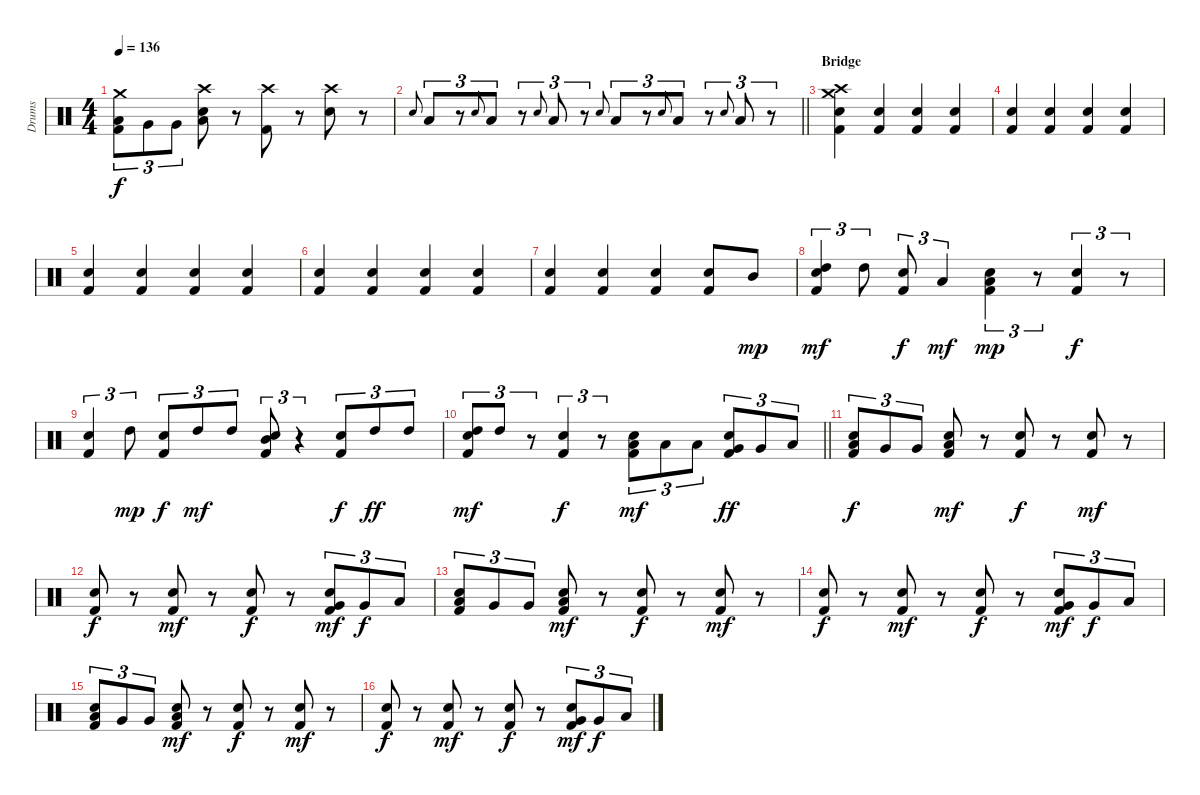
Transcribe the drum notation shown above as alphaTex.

\track ("Drums" "Drums") {instrument percussion}
\staff {score}
\articulation defaults
\ts (4 4)
\tempo 136
\clef neutral
\ks c
("Crash medium (hit)" "Low Floor Tom (hit)" "Kick (hit) 2").8{tu (3 2) dy f} "Very Low Tom (hit)".8{tu (3 2)} "Very Low Tom (hit)".8{tu (3 2)} ("Crash high (hit)" "Electric Snare (hit)" "Low Tom (hit)").8 r.8 ("Crash high (hit)" "Kick (hit) 2").8 r.8 ("Crash high (hit)" "Electric Snare (hit)").8 r.8 |
\barLineRight lightlight "Electric Snare (hit)".8{gr onbeat} "Low Floor Tom (hit)".8{tu (3 2)}
r.8{tu (3 2)} "Electric Snare (hit)".8{gr onbeat} "Low Floor Tom (hit)".8{tu (3 2)} r.8{tu (3 2)} "Electric Snare (hit)".8{gr onbeat} "Low Floor Tom (hit)".8{tu (3 2)} r.8{tu (3 2)} "Electric Snare (hit)".8{gr onbeat} "Low Floor Tom (hit)".8{tu (3 2)} r.8{tu (3 2)} "Electric Snare (hit)".8{gr onbeat} "Low Floor Tom (hit)".8{tu (3 2)} r.8{tu (3 2)} "Electric Snare (hit)".8{gr onbeat} "Low Floor Tom (hit)".8{tu (3 2)} r.8{tu (3 2)} |
\section ("" "Bridge")
("Hand Clap (hit)" "Crash medium (hit)" "Crash high (hit)" "Kick (hit) 2").4 ("Hand Clap (hit)" "Kick (hit) 2").4 ("Hand Clap (hit)" "Kick (hit) 2").4 ("Hand Clap (hit)" "Kick (hit) 2").4 |
("Hand Clap (hit)" "Kick (hit) 2").4 ("Hand Clap (hit)" "Kick (hit) 2").4 ("Hand Clap (hit)" "Kick (hit) 2").4 ("Hand Clap (hit)" "Kick (hit) 2").4 |
("Hand Clap (hit)" "Kick (hit) 2").4 ("Hand Clap (hit)" "Kick (hit) 2").4 ("Hand Clap (hit)" "Kick (hit) 2").4 ("Hand Clap (hit)" "Kick (hit) 2").4 |
("Hand Clap (hit)" "Kick (hit) 2").4 ("Hand Clap (hit)" "Kick (hit) 2").4 ("Hand Clap (hit)" "Kick (hit) 2").4 ("Hand Clap (hit)" "Kick (hit) 2").4 |
("Hand Clap (hit)" "Kick (hit) 2").4 ("Hand Clap (hit)" "Kick (hit) 2").4 ("Hand Clap (hit)" "Kick (hit) 2").4 ("Hand Clap (hit)" "Kick (hit) 2").8 "Mid Tom (hit)".8{dy mp} |
("Hand Clap (hit)" "High Tom (hit)" "Kick (hit) 2").4{tu (3 2) dy mf} "High Tom (hit)".8{tu (3 2)} ("Hand Clap (hit)" "Kick (hit) 2").8{tu (3 2) dy f} "Low Tom (hit)".4{tu (3 2) dy mf} ("Hand Clap (hit)" "Low Floor Tom (hit)" "Kick (hit) 2").4{tu (3 2) dy mp} r.8{tu (3 2)} ("Hand Clap (hit)" "Kick (hit) 2").4{tu (3 2) dy f} r.8{tu (3 2)} |
("Hand Clap (hit)" "Kick (hit) 2").4{tu (3 2)} "High Tom (hit)".8{tu (3 2) dy mp} ("Hand Clap (hit)" "Kick (hit) 2").8{tu (3 2) dy f} "High Tom (hit)".8{tu (3 2) dy mf} "High Tom (hit)".8{tu (3 2)} ("Hand Clap (hit)" "Mid Tom (hit)" "Kick (hit) 2").8{tu (3 2)} r.4{tu (3 2)} ("Hand Clap (hit)" "Kick (hit) 2").8{tu (3 2) dy f} "High Tom (hit)".8{tu (3 2) dy ff} "High Tom (hit)".8{tu (3 2)} |
\barLineRight lightlight
("Hand Clap (hit)" "High Tom (hit)" "Kick (hit) 2").8{tu (3 2) dy mf} "High Tom (hit)".8{tu (3 2)} r.8{tu (3 2)} ("Hand Clap (hit)" "Kick (hit) 2").4{tu (3 2) dy f} r.8{tu (3 2)} ("Hand Clap (hit)" "Low Floor Tom (hit)" "Kick (hit) 2").8{tu (3 2) dy mf} "Low Floor Tom (hit)".8{tu (3 2)} "Low Floor Tom (hit)".8{tu (3 2)} ("Hand Clap (hit)" "Very Low Tom (hit)" "Kick (hit) 2").8{tu (3 2) dy ff} "Very Low Tom (hit)".8{tu (3 2)} "Low Floor Tom (hit)".8{tu (3 2)} |
("Hand Clap (hit)" "Low Floor Tom (hit)" "Kick (hit) 2").8{tu (3 2) dy f} "Very Low Tom (hit)".8{tu (3 2)} "Very Low Tom (hit)".8{tu (3 2)} ("Hand Clap (hit)" "Low Tom (hit)" "Kick (hit) 2").8{dy mf} r.8 ("Hand Clap (hit)" "Kick (hit) 2").8{dy f} r.8 ("Hand Clap (hit)" "Kick (hit) 2").8{dy mf} r.8 |
("Hand Clap (hit)" "Kick (hit) 2").8{dy f} r.8 ("Hand Clap (hit)" "Kick (hit) 2").8{dy mf} r.8 ("Hand Clap (hit)" "Kick (hit) 2").8{dy f} r.8 ("Hand Clap (hit)" "Very Low Tom (hit)" "Kick (hit) 2").8{tu (3 2) dy mf} "Very Low Tom (hit)".8{tu (3 2) dy f} "Low Floor Tom (hit)".8{tu (3 2)} |
("Hand Clap (hit)" "Low Floor Tom (hit)" "Kick (hit) 2").8{tu (3 2)} "Very Low Tom (hit)".8{tu (3 2)} "Very Low Tom (hit)".8{tu (3 2)} ("Hand Clap (hit)" "Low Tom (hit)" "Kick (hit) 2").8{dy mf} r.8 ("Hand Clap (hit)" "Kick (hit) 2").8{dy f} r.8 ("Hand Clap (hit)" "Kick (hit) 2").8{dy mf} r.8 |
("Hand Clap (hit)" "Kick (hit) 2").8{dy f} r.8 ("Hand Clap (hit)" "Kick (hit) 2").8{dy mf} r.8 ("Hand Clap (hit)" "Kick (hit) 2").8{dy f} r.8 ("Hand Clap (hit)" "Very Low Tom (hit)" "Kick (hit) 2").8{tu (3 2) dy mf} "Very Low Tom (hit)".8{tu (3 2) dy f} "Low Floor Tom (hit)".8{tu (3 2)} |
("Hand Clap (hit)" "Low Floor Tom (hit)" "Kick (hit) 2").8{tu (3 2)} "Very Low Tom (hit)".8{tu (3 2)} "Very Low Tom (hit)".8{tu (3 2)} ("Hand Clap (hit)" "Low Tom (hit)" "Kick (hit) 2").8{dy mf} r.8 ("Hand Clap (hit)" "Kick (hit) 2").8{dy f} r.8 ("Hand Clap (hit)" "Kick (hit) 2").8{dy mf} r.8 |
("Hand Clap (hit)" "Kick (hit) 2").8{dy f} r.8 ("Hand Clap (hit)" "Kick (hit) 2").8{dy mf} r.8 ("Hand Clap (hit)" "Kick (hit) 2").8{dy f} r.8 ("Hand Clap (hit)" "Very Low Tom (hit)" "Kick (hit) 2").8{tu (3 2) dy mf} "Very Low Tom (hit)".8{tu (3 2) dy f} "Low Floor Tom (hit)".8{tu (3 2)}
